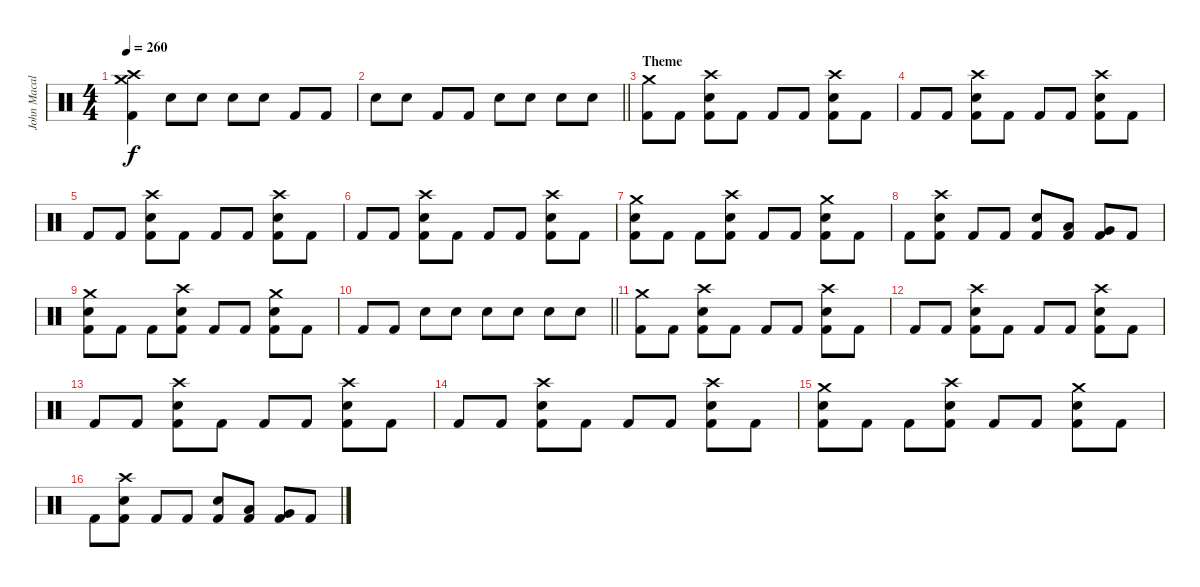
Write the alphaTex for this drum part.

\track ("John Macaluso" "John Macal") {instrument percussion}
\staff {score}
\articulation defaults
\ts (4 4)
\tempo 260
\clef neutral
\ks c
("Crash high (hit)" "Crash medium (hit)" "Kick (hit) 2").4{dy f} "Snare (hit) 2".8 "Snare (hit) 2".8 "Snare (hit) 2".8 "Snare (hit) 2".8 "Kick (hit) 2".8 "Kick (hit) 2".8 |
\barLineRight lightlight "Snare (hit) 2".8 "Snare (hit) 2".8 "Kick (hit) 2".8 "Kick (hit) 2".8 "Snare (hit) 2".8 "Snare (hit) 2".8 "Snare (hit) 2".8 "Snare (hit) 2".8
|
\section ("" "Theme")
("Crash medium (hit)" "Kick (hit) 2").8 "Kick (hit) 2".8 ("Crash high (hit)" "Snare (hit) 2" "Kick (hit) 2").8 "Kick (hit) 2".8 "Kick (hit) 2".8 "Kick (hit) 2".8 ("Crash high (hit)" "Snare (hit) 2" "Kick (hit) 2").8 "Kick (hit) 2".8 |
"Kick (hit) 2".8 "Kick (hit) 2".8 ("Crash high (hit)" "Snare (hit) 2" "Kick (hit) 2").8 "Kick (hit) 2".8 "Kick (hit) 2".8 "Kick (hit) 2".8 ("Crash high (hit)" "Snare (hit) 2" "Kick (hit) 2").8 "Kick (hit) 2".8 |
"Kick (hit) 2".8 "Kick (hit) 2".8 ("Crash high (hit)" "Snare (hit) 2" "Kick (hit) 2").8 "Kick (hit) 2".8 "Kick (hit) 2".8 "Kick (hit) 2".8 ("Crash high (hit)" "Snare (hit) 2" "Kick (hit) 2").8 "Kick (hit) 2".8 |
"Kick (hit) 2".8 "Kick (hit) 2".8 ("Crash high (hit)" "Snare (hit) 2" "Kick (hit) 2").8 "Kick (hit) 2".8 "Kick (hit) 2".8 "Kick (hit) 2".8 ("Crash high (hit)" "Snare (hit) 2" "Kick (hit) 2").8 "Kick (hit) 2".8 |
("Crash medium (hit)" "Snare (hit) 2" "Kick (hit) 2").8 "Kick (hit) 2".8 "Kick (hit) 2".8 ("Crash high (hit)" "Snare (hit) 2" "Kick (hit) 2").8 "Kick (hit) 2".8 "Kick (hit) 2".8 ("Crash medium (hit)" "Snare (hit) 2" "Kick (hit) 2").8 "Kick (hit) 2".8 |
"Kick (hit) 2".8 ("Crash high (hit)" "Snare (hit) 2" "Kick (hit) 2").8 "Kick (hit) 2".8 "Kick (hit) 2".8 ("Snare (hit) 2" "Kick (hit) 2").8 ("Low Tom (hit)" "Kick (hit) 2").8 ("Very Low Tom (hit)" "Kick (hit) 2").8 "Kick (hit) 2".8 |
("Crash medium (hit)" "Snare (hit) 2" "Kick (hit) 2").8 "Kick (hit) 2".8 "Kick (hit) 2".8 ("Crash high (hit)" "Snare (hit) 2" "Kick (hit) 2").8 "Kick (hit) 2".8 "Kick (hit) 2".8 ("Crash medium (hit)" "Snare (hit) 2" "Kick (hit) 2").8 "Kick (hit) 2".8 |
\barLineRight lightlight "Kick (hit) 2".8 "Kick (hit) 2".8 "Snare (hit) 2".8 "Snare (hit) 2".8 "Snare (hit) 2".8 "Snare (hit) 2".8 "Snare (hit) 2".8 "Snare (hit) 2".8
|
("Crash medium (hit)" "Kick (hit) 2").8 "Kick (hit) 2".8 ("Crash high (hit)" "Snare (hit) 2" "Kick (hit) 2").8 "Kick (hit) 2".8 "Kick (hit) 2".8 "Kick (hit) 2".8 ("Crash high (hit)" "Snare (hit) 2" "Kick (hit) 2").8 "Kick (hit) 2".8 |
"Kick (hit) 2".8 "Kick (hit) 2".8 ("Crash high (hit)" "Snare (hit) 2" "Kick (hit) 2").8 "Kick (hit) 2".8 "Kick (hit) 2".8 "Kick (hit) 2".8 ("Crash high (hit)" "Snare (hit) 2" "Kick (hit) 2").8 "Kick (hit) 2".8 |
"Kick (hit) 2".8 "Kick (hit) 2".8 ("Crash high (hit)" "Snare (hit) 2" "Kick (hit) 2").8 "Kick (hit) 2".8 "Kick (hit) 2".8 "Kick (hit) 2".8 ("Crash high (hit)" "Snare (hit) 2" "Kick (hit) 2").8 "Kick (hit) 2".8 |
"Kick (hit) 2".8 "Kick (hit) 2".8 ("Crash high (hit)" "Snare (hit) 2" "Kick (hit) 2").8 "Kick (hit) 2".8 "Kick (hit) 2".8 "Kick (hit) 2".8 ("Crash high (hit)" "Snare (hit) 2" "Kick (hit) 2").8 "Kick (hit) 2".8 |
("Crash medium (hit)" "Snare (hit) 2" "Kick (hit) 2").8 "Kick (hit) 2".8 "Kick (hit) 2".8 ("Crash high (hit)" "Snare (hit) 2" "Kick (hit) 2").8 "Kick (hit) 2".8 "Kick (hit) 2".8 ("Crash medium (hit)" "Snare (hit) 2" "Kick (hit) 2").8 "Kick (hit) 2".8 |
"Kick (hit) 2".8 ("Crash high (hit)" "Snare (hit) 2" "Kick (hit) 2").8 "Kick (hit) 2".8 "Kick (hit) 2".8 ("Snare (hit) 2" "Kick (hit) 2").8 ("Low Tom (hit)" "Kick (hit) 2").8 ("Very Low Tom (hit)" "Kick (hit) 2").8 "Kick (hit) 2".8
